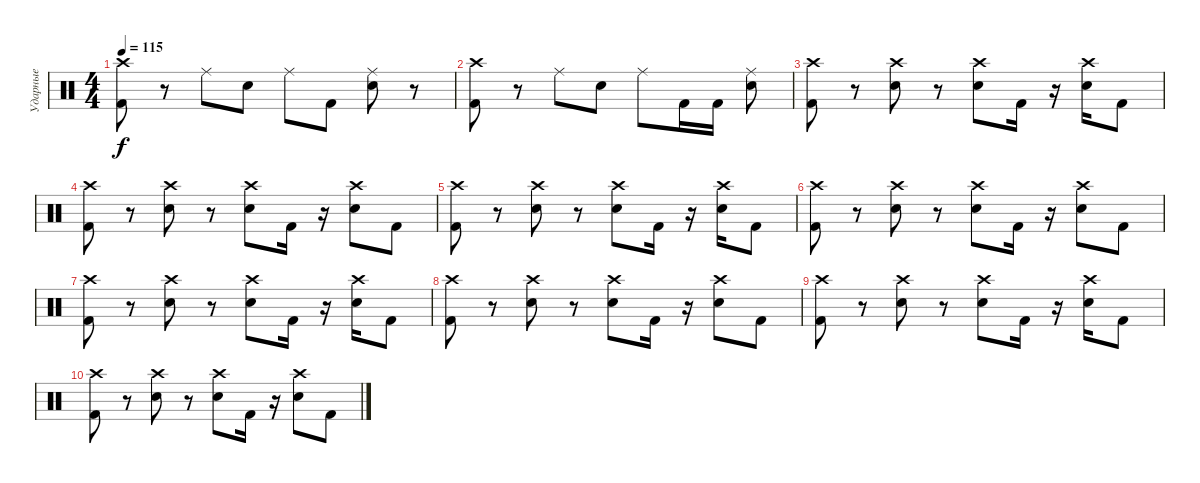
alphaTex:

\track ("Ударные" "Ударные") {instrument percussion}
\staff {score}
\articulation defaults
\ts (4 4)
\tempo 115
\clef neutral
\ks c
("Kick (hit) 2" "Crash high (hit)").8{dy f} r.8 "Ride (middle)".8 "Electric Snare (hit)".8 "Ride (middle)".8 "Kick (hit) 2".8 ("Electric Snare (hit)" "Ride (middle)").8 r.8 |
("Kick (hit) 2" "Crash high (hit)").8 r.8 "Ride (middle)".8 "Electric Snare (hit)".8 "Ride (middle)".8 "Kick (hit) 2".16 "Kick (hit) 2".16 ("Electric Snare (hit)" "Ride (middle)").8 |
("Kick (hit) 2" "Crash high (hit)").8 r.8 ("Electric Snare (hit)" "Crash high (hit)").8 r.8 ("Electric Snare (hit)" "Crash high (hit)").8 "Kick (hit) 2".16 r.16 ("Electric Snare (hit)" "Crash high (hit)").16 "Kick (hit) 2".8 |
("Kick (hit) 2" "Crash high (hit)").8 r.8 ("Electric Snare (hit)" "Crash high (hit)").8 r.8 ("Electric Snare (hit)" "Crash high (hit)").8 "Kick (hit) 2".16 r.16 ("Electric Snare (hit)" "Crash high (hit)").8 "Kick (hit) 2".8 |
("Kick (hit) 2" "Crash high (hit)").8 r.8 ("Electric Snare (hit)" "Crash high (hit)").8 r.8 ("Electric Snare (hit)" "Crash high (hit)").8 "Kick (hit) 2".16 r.16 ("Electric Snare (hit)" "Crash high (hit)").16 "Kick (hit) 2".8 |
("Kick (hit) 2" "Crash high (hit)").8 r.8 ("Electric Snare (hit)" "Crash high (hit)").8 r.8 ("Electric Snare (hit)" "Crash high (hit)").8 "Kick (hit) 2".16 r.16 ("Electric Snare (hit)" "Crash high (hit)").8 "Kick (hit) 2".8 |
("Kick (hit) 2" "Crash high (hit)").8 r.8 ("Electric Snare (hit)" "Crash high (hit)").8 r.8 ("Electric Snare (hit)" "Crash high (hit)").8 "Kick (hit) 2".16 r.16 ("Electric Snare (hit)" "Crash high (hit)").16 "Kick (hit) 2".8 |
("Kick (hit) 2" "Crash high (hit)").8 r.8 ("Electric Snare (hit)" "Crash high (hit)").8 r.8 ("Electric Snare (hit)" "Crash high (hit)").8 "Kick (hit) 2".16 r.16 ("Electric Snare (hit)" "Crash high (hit)").8 "Kick (hit) 2".8 |
("Kick (hit) 2" "Crash high (hit)").8 r.8 ("Electric Snare (hit)" "Crash high (hit)").8 r.8 ("Electric Snare (hit)" "Crash high (hit)").8 "Kick (hit) 2".16 r.16 ("Electric Snare (hit)" "Crash high (hit)").16 "Kick (hit) 2".8 |
("Kick (hit) 2" "Crash high (hit)").8 r.8 ("Electric Snare (hit)" "Crash high (hit)").8 r.8 ("Electric Snare (hit)" "Crash high (hit)").8 "Kick (hit) 2".16 r.16 ("Electric Snare (hit)" "Crash high (hit)").8 "Kick (hit) 2".8
